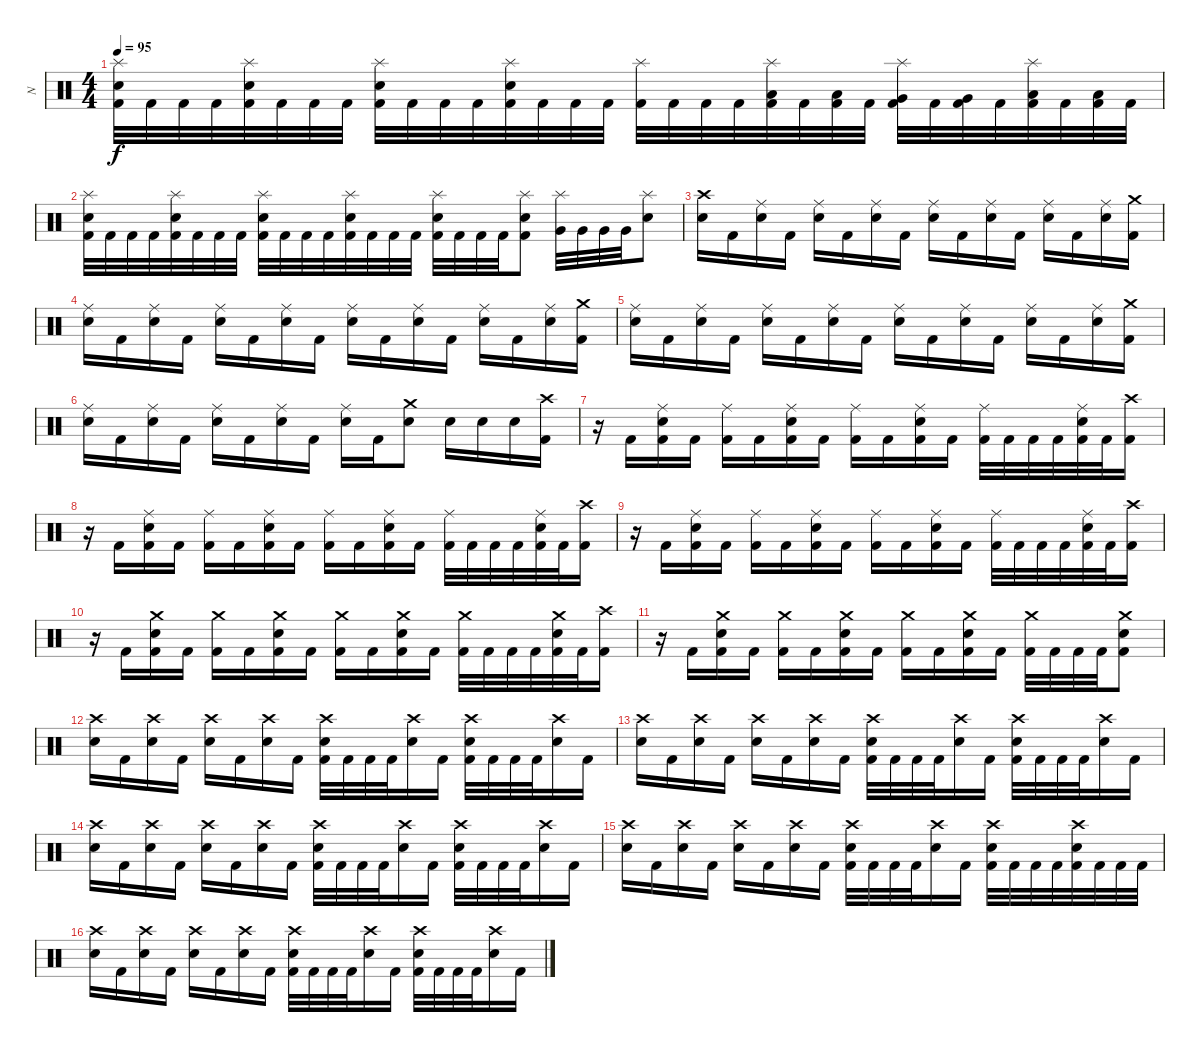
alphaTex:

\track ("N" "N") {instrument percussion}
\staff {score}
\articulation defaults
\ts (4 4)
\tempo 95
\clef neutral
\ks c
("Splash (hit)" "Electric Snare (hit)" "Kick (hit) 2").32{dy f} "Kick (hit) 2".32 "Kick (hit) 2".32 "Kick (hit) 2".32 ("Splash (hit)" "Electric Snare (hit)" "Kick (hit) 2").32 "Kick (hit) 2".32 "Kick (hit) 2".32 "Kick (hit) 2".32 ("Splash (hit)" "Electric Snare (hit)" "Kick (hit) 2").32 "Kick (hit) 2".32 "Kick (hit) 2".32 "Kick (hit) 2".32 ("Splash (hit)" "Electric Snare (hit)" "Kick (hit) 2").32 "Kick (hit) 2".32 "Kick (hit) 2".32 "Kick (hit) 2".32 ("Splash (hit)" "Kick (hit) 2").32 "Kick (hit) 2".32 "Kick (hit) 2".32 "Kick (hit) 2".32 ("Splash (hit)" "Low Tom (hit)" "Kick (hit) 2").32 "Kick (hit) 2".32 ("Low Tom (hit)" "Kick (hit) 2").32 "Kick (hit) 2".32 ("Splash (hit)" "Very Low Tom (hit)" "Kick (hit) 2").32 "Kick (hit) 2".32 ("Very Low Tom (hit)" "Kick (hit) 2").32 "Kick (hit) 2".32 ("Splash (hit)" "Low Floor Tom (hit)" "Kick (hit) 2").32 "Kick (hit) 2".32 ("Low Floor Tom (hit)" "Kick (hit) 2").32 "Kick (hit) 2".32 |
("Splash (hit)" "Electric Snare (hit)" "Kick (hit) 2").32 "Kick (hit) 2".32 "Kick (hit) 2".32 "Kick (hit) 2".32 ("Splash (hit)" "Electric Snare (hit)" "Kick (hit) 2").32 "Kick (hit) 2".32 "Kick (hit) 2".32 "Kick (hit) 2".32 ("Splash (hit)" "Electric Snare (hit)" "Kick (hit) 2").32 "Kick (hit) 2".32 "Kick (hit) 2".32 "Kick (hit) 2".32 ("Splash (hit)" "Electric Snare (hit)" "Kick (hit) 2").32 "Kick (hit) 2".32 "Kick (hit) 2".32 "Kick (hit) 2".32 ("Splash (hit)" "Electric Snare (hit)" "Kick (hit) 2").32 "Kick (hit) 2".32 "Kick (hit) 2".32 "Kick (hit) 2".32 ("Splash (hit)" "Electric Snare (hit)" "Kick (hit) 2").8 ("Splash (hit)" "Very Low Tom (hit)").32 "Very Low Tom (hit)".32 "Very Low Tom (hit)".32 "Very Low Tom (hit)".32 ("Splash (hit)" "Electric Snare (hit)").8 |
\section ("" " ")
("Crash high (hit)" "Electric Snare (hit)").16 "Kick (hit) 2".16 ("Ride (middle)" "Electric Snare (hit)").16 "Kick (hit) 2".16 ("Ride (middle)" "Electric Snare (hit)").16 "Kick (hit) 2".16 ("Ride (middle)" "Electric Snare (hit)").16 "Kick (hit) 2".16 ("Ride (middle)" "Electric Snare (hit)").16 "Kick (hit) 2".16 ("Ride (middle)" "Electric Snare (hit)").16 "Kick (hit) 2".16 ("Ride (middle)" "Electric Snare (hit)").16 "Kick (hit) 2".16 ("Ride (middle)" "Electric Snare (hit)").16 ("Crash medium (hit)" "Kick (hit) 2").16 |
("Ride (middle)" "Electric Snare (hit)").16 "Kick (hit) 2".16 ("Ride (middle)" "Electric Snare (hit)").16 "Kick (hit) 2".16 ("Ride (middle)" "Electric Snare (hit)").16 "Kick (hit) 2".16 ("Ride (middle)" "Electric Snare (hit)").16 "Kick (hit) 2".16 ("Ride (middle)" "Electric Snare (hit)").16 "Kick (hit) 2".16 ("Ride (middle)" "Electric Snare (hit)").16 "Kick (hit) 2".16 ("Ride (middle)" "Electric Snare (hit)").16 "Kick (hit) 2".16 ("Ride (middle)" "Electric Snare (hit)").16 ("Crash medium (hit)" "Kick (hit) 2").16 |
("Ride (middle)" "Electric Snare (hit)").16 "Kick (hit) 2".16 ("Ride (middle)" "Electric Snare (hit)").16 "Kick (hit) 2".16 ("Ride (middle)" "Electric Snare (hit)").16 "Kick (hit) 2".16 ("Ride (middle)" "Electric Snare (hit)").16 "Kick (hit) 2".16 ("Ride (middle)" "Electric Snare (hit)").16 "Kick (hit) 2".16 ("Ride (middle)" "Electric Snare (hit)").16 "Kick (hit) 2".16 ("Ride (middle)" "Electric Snare (hit)").16 "Kick (hit) 2".16 ("Ride (middle)" "Electric Snare (hit)").16 ("Crash medium (hit)" "Kick (hit) 2").16 |
("Ride (middle)" "Electric Snare (hit)").16 "Kick (hit) 2".16 ("Ride (middle)" "Electric Snare (hit)").16 "Kick (hit) 2".16 ("Ride (middle)" "Electric Snare (hit)").16 "Kick (hit) 2".16 ("Ride (middle)" "Electric Snare (hit)").16 "Kick (hit) 2".16 ("Ride (middle)" "Electric Snare (hit)").16 "Kick (hit) 2".16 ("Crash medium (hit)" "Electric Snare (hit)").8 "Electric Snare (hit)".16 "Electric Snare (hit)".16 "Electric Snare (hit)".16 ("Crash high (hit)" "Kick (hit) 2").16 |
r.16 "Kick (hit) 2".16 ("Ride (middle)" "Electric Snare (hit)" "Kick (hit) 2").16 "Kick (hit) 2".16 ("Ride (middle)" "Kick (hit) 2").16 "Kick (hit) 2".16 ("Ride (middle)" "Electric Snare (hit)" "Kick (hit) 2").16 "Kick (hit) 2".16 ("Ride (middle)" "Kick (hit) 2").16 "Kick (hit) 2".16 ("Ride (middle)" "Electric Snare (hit)" "Kick (hit) 2").16 "Kick (hit) 2".16 ("Ride (middle)" "Kick (hit) 2").32 "Kick (hit) 2".32 "Kick (hit) 2".32 "Kick (hit) 2".32 ("Ride (middle)" "Electric Snare (hit)" "Kick (hit) 2").32 "Kick (hit) 2".32 ("Crash high (hit)" "Kick (hit) 2").16 |
r.16 "Kick (hit) 2".16 ("Ride (middle)" "Electric Snare (hit)" "Kick (hit) 2").16 "Kick (hit) 2".16 ("Ride (middle)" "Kick (hit) 2").16 "Kick (hit) 2".16 ("Ride (middle)" "Electric Snare (hit)" "Kick (hit) 2").16 "Kick (hit) 2".16 ("Ride (middle)" "Kick (hit) 2").16 "Kick (hit) 2".16 ("Ride (middle)" "Electric Snare (hit)" "Kick (hit) 2").16 "Kick (hit) 2".16 ("Ride (middle)" "Kick (hit) 2").32 "Kick (hit) 2".32 "Kick (hit) 2".32 "Kick (hit) 2".32 ("Ride (middle)" "Electric Snare (hit)" "Kick (hit) 2").32 "Kick (hit) 2".32 ("Crash high (hit)" "Kick (hit) 2").16 |
r.16 "Kick (hit) 2".16 ("Ride (middle)" "Electric Snare (hit)" "Kick (hit) 2").16 "Kick (hit) 2".16 ("Ride (middle)" "Kick (hit) 2").16 "Kick (hit) 2".16 ("Ride (middle)" "Electric Snare (hit)" "Kick (hit) 2").16 "Kick (hit) 2".16 ("Ride (middle)" "Kick (hit) 2").16 "Kick (hit) 2".16 ("Ride (middle)" "Electric Snare (hit)" "Kick (hit) 2").16 "Kick (hit) 2".16 ("Ride (middle)" "Kick (hit) 2").32 "Kick (hit) 2".32 "Kick (hit) 2".32 "Kick (hit) 2".32 ("Ride (middle)" "Electric Snare (hit)" "Kick (hit) 2").32 "Kick (hit) 2".32 ("Crash high (hit)" "Kick (hit) 2").16 |
r.16 "Kick (hit) 2".16 ("Crash medium (hit)" "Electric Snare (hit)" "Kick (hit) 2").16 "Kick (hit) 2".16 ("Crash medium (hit)" "Kick (hit) 2").16 "Kick (hit) 2".16 ("Crash medium (hit)" "Electric Snare (hit)" "Kick (hit) 2").16 "Kick (hit) 2".16 ("Crash medium (hit)" "Kick (hit) 2").16 "Kick (hit) 2".16 ("Crash medium (hit)" "Electric Snare (hit)" "Kick (hit) 2").16 "Kick (hit) 2".16 ("Crash medium (hit)" "Kick (hit) 2").32 "Kick (hit) 2".32 "Kick (hit) 2".32 "Kick (hit) 2".32 ("Crash medium (hit)" "Electric Snare (hit)" "Kick (hit) 2").32 "Kick (hit) 2".32 ("Crash high (hit)" "Kick (hit) 2").16 |
r.16 "Kick (hit) 2".16 ("Crash medium (hit)" "Electric Snare (hit)" "Kick (hit) 2").16 "Kick (hit) 2".16 ("Crash medium (hit)" "Kick (hit) 2").16 "Kick (hit) 2".16 ("Crash medium (hit)" "Electric Snare (hit)" "Kick (hit) 2").16 "Kick (hit) 2".16 ("Crash medium (hit)" "Kick (hit) 2").16 "Kick (hit) 2".16 ("Crash medium (hit)" "Electric Snare (hit)" "Kick (hit) 2").16 "Kick (hit) 2".16 ("Crash medium (hit)" "Kick (hit) 2").32 "Kick (hit) 2".32 "Kick (hit) 2".32 "Kick (hit) 2".32 ("Crash medium (hit)" "Electric Snare (hit)" "Kick (hit) 2").8 |
\section ("" " ")
("Crash high (hit)" "Electric Snare (hit)").16 "Kick (hit) 2".16 ("Crash high (hit)" "Electric Snare (hit)").16 "Kick (hit) 2".16 ("Crash high (hit)" "Electric Snare (hit)").16 "Kick (hit) 2".16 ("Crash high (hit)" "Electric Snare (hit)").16 "Kick (hit) 2".16 ("Crash high (hit)" "Electric Snare (hit)" "Kick (hit) 2").32 "Kick (hit) 2".32 "Kick (hit) 2".32 "Kick (hit) 2".32 ("Crash high (hit)" "Electric Snare (hit)").16 "Kick (hit) 2".16 ("Crash high (hit)" "Electric Snare (hit)" "Kick (hit) 2").32 "Kick (hit) 2".32 "Kick (hit) 2".32 "Kick (hit) 2".32 ("Crash high (hit)" "Electric Snare (hit)").16 "Kick (hit) 2".16 |
("Crash high (hit)" "Electric Snare (hit)").16 "Kick (hit) 2".16 ("Crash high (hit)" "Electric Snare (hit)").16 "Kick (hit) 2".16 ("Crash high (hit)" "Electric Snare (hit)").16 "Kick (hit) 2".16 ("Crash high (hit)" "Electric Snare (hit)").16 "Kick (hit) 2".16 ("Crash high (hit)" "Electric Snare (hit)" "Kick (hit) 2").32 "Kick (hit) 2".32 "Kick (hit) 2".32 "Kick (hit) 2".32 ("Crash high (hit)" "Electric Snare (hit)").16 "Kick (hit) 2".16 ("Crash high (hit)" "Electric Snare (hit)" "Kick (hit) 2").32 "Kick (hit) 2".32 "Kick (hit) 2".32 "Kick (hit) 2".32 ("Crash high (hit)" "Electric Snare (hit)").16 "Kick (hit) 2".16 |
("Crash high (hit)" "Electric Snare (hit)").16 "Kick (hit) 2".16 ("Crash high (hit)" "Electric Snare (hit)").16 "Kick (hit) 2".16 ("Crash high (hit)" "Electric Snare (hit)").16 "Kick (hit) 2".16 ("Crash high (hit)" "Electric Snare (hit)").16 "Kick (hit) 2".16 ("Crash high (hit)" "Electric Snare (hit)" "Kick (hit) 2").32 "Kick (hit) 2".32 "Kick (hit) 2".32 "Kick (hit) 2".32 ("Crash high (hit)" "Electric Snare (hit)").16 "Kick (hit) 2".16 ("Crash high (hit)" "Electric Snare (hit)" "Kick (hit) 2").32 "Kick (hit) 2".32 "Kick (hit) 2".32 "Kick (hit) 2".32 ("Crash high (hit)" "Electric Snare (hit)").16 "Kick (hit) 2".16 |
("Crash high (hit)" "Electric Snare (hit)").16 "Kick (hit) 2".16 ("Crash high (hit)" "Electric Snare (hit)").16 "Kick (hit) 2".16 ("Crash high (hit)" "Electric Snare (hit)").16 "Kick (hit) 2".16 ("Crash high (hit)" "Electric Snare (hit)").16 "Kick (hit) 2".16 ("Crash high (hit)" "Electric Snare (hit)" "Kick (hit) 2").32 "Kick (hit) 2".32 "Kick (hit) 2".32 "Kick (hit) 2".32 ("Crash high (hit)" "Electric Snare (hit)").16 "Kick (hit) 2".16 ("Crash high (hit)" "Electric Snare (hit)" "Kick (hit) 2").32 "Kick (hit) 2".32 "Kick (hit) 2".32 "Kick (hit) 2".32 ("Crash high (hit)" "Electric Snare (hit)" "Kick (hit) 2").32 "Kick (hit) 2".32 "Kick (hit) 2".32 "Kick (hit) 2".32 |
("Crash high (hit)" "Electric Snare (hit)").16 "Kick (hit) 2".16 ("Crash high (hit)" "Electric Snare (hit)").16 "Kick (hit) 2".16 ("Crash high (hit)" "Electric Snare (hit)").16 "Kick (hit) 2".16 ("Crash high (hit)" "Electric Snare (hit)").16 "Kick (hit) 2".16 ("Crash high (hit)" "Electric Snare (hit)" "Kick (hit) 2").32 "Kick (hit) 2".32 "Kick (hit) 2".32 "Kick (hit) 2".32 ("Crash high (hit)" "Electric Snare (hit)").16 "Kick (hit) 2".16 ("Crash high (hit)" "Electric Snare (hit)" "Kick (hit) 2").32 "Kick (hit) 2".32 "Kick (hit) 2".32 "Kick (hit) 2".32 ("Crash high (hit)" "Electric Snare (hit)").16 "Kick (hit) 2".16
